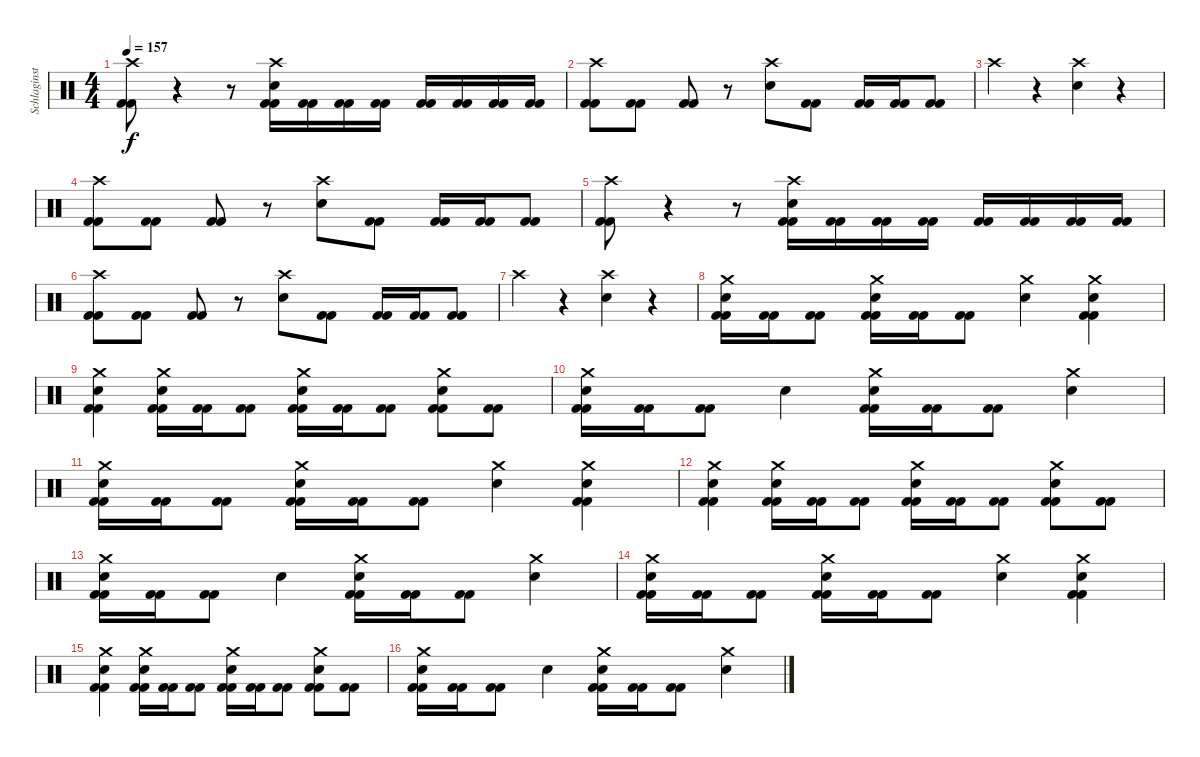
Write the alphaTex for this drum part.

\track ("Schlaginstrumente - Auswahl" "Schlaginst") {instrument percussion}
\staff {score}
\articulation defaults
\ts (4 4)
\tempo 157
\clef neutral
\ks c
("Crash high (hit)" "Kick (hit) 2" "Kick (hit) 2").8{dy f} r.4 r.8 ("Crash high (hit)" "Electric Snare (hit)" "Kick (hit) 2" "Kick (hit) 2").16 ("Kick (hit) 2" "Kick (hit) 2").16 ("Kick (hit) 2" "Kick (hit) 2").16 ("Kick (hit) 2" "Kick (hit) 2").16 ("Kick (hit) 2" "Kick (hit) 2").16 ("Kick (hit) 2" "Kick (hit) 2").16 ("Kick (hit) 2" "Kick (hit) 2").16 ("Kick (hit) 2" "Kick (hit) 2").16 |
("Crash high (hit)" "Kick (hit) 2" "Kick (hit) 2").8 ("Kick (hit) 2" "Kick (hit) 2").8 ("Kick (hit) 2" "Kick (hit) 2").8 r.8 ("Crash high (hit)" "Electric Snare (hit)").8 ("Kick (hit) 2" "Kick (hit) 2").8 ("Kick (hit) 2" "Kick (hit) 2").16 ("Kick (hit) 2" "Kick (hit) 2").16 ("Kick (hit) 2" "Kick (hit) 2").8 |
"Crash high (hit)".4 r.4 ("Crash high (hit)" "Electric Snare (hit)").4 r.4 |
("Crash high (hit)" "Kick (hit) 2" "Kick (hit) 2").8 ("Kick (hit) 2" "Kick (hit) 2").8 ("Kick (hit) 2" "Kick (hit) 2").8 r.8 ("Crash high (hit)" "Electric Snare (hit)").8 ("Kick (hit) 2" "Kick (hit) 2").8 ("Kick (hit) 2" "Kick (hit) 2").16 ("Kick (hit) 2" "Kick (hit) 2").16 ("Kick (hit) 2" "Kick (hit) 2").8 |
("Crash high (hit)" "Kick (hit) 2" "Kick (hit) 2").8 r.4 r.8 ("Crash high (hit)" "Electric Snare (hit)" "Kick (hit) 2" "Kick (hit) 2").16 ("Kick (hit) 2" "Kick (hit) 2").16 ("Kick (hit) 2" "Kick (hit) 2").16 ("Kick (hit) 2" "Kick (hit) 2").16 ("Kick (hit) 2" "Kick (hit) 2").16 ("Kick (hit) 2" "Kick (hit) 2").16 ("Kick (hit) 2" "Kick (hit) 2").16 ("Kick (hit) 2" "Kick (hit) 2").16 |
("Crash high (hit)" "Kick (hit) 2" "Kick (hit) 2").8 ("Kick (hit) 2" "Kick (hit) 2").8 ("Kick (hit) 2" "Kick (hit) 2").8 r.8 ("Crash high (hit)" "Electric Snare (hit)").8 ("Kick (hit) 2" "Kick (hit) 2").8 ("Kick (hit) 2" "Kick (hit) 2").16 ("Kick (hit) 2" "Kick (hit) 2").16 ("Kick (hit) 2" "Kick (hit) 2").8 |
"Crash high (hit)".4 r.4 ("Crash high (hit)" "Electric Snare (hit)").4 r.4 |
("Crash medium (hit)" "Electric Snare (hit)" "Kick (hit) 2" "Kick (hit) 2").16 ("Kick (hit) 2" "Kick (hit) 2").16 ("Kick (hit) 2" "Kick (hit) 2").8 ("Crash medium (hit)" "Electric Snare (hit)" "Kick (hit) 2" "Kick (hit) 2").16 ("Kick (hit) 2" "Kick (hit) 2").16 ("Kick (hit) 2" "Kick (hit) 2").8 ("Crash medium (hit)" "Electric Snare (hit)").4 ("Crash medium (hit)" "Electric Snare (hit)" "Kick (hit) 2" "Kick (hit) 2").4 |
("Crash medium (hit)" "Electric Snare (hit)" "Kick (hit) 2" "Kick (hit) 2").4 ("Crash medium (hit)" "Electric Snare (hit)" "Kick (hit) 2" "Kick (hit) 2").16 ("Kick (hit) 2" "Kick (hit) 2").16 ("Kick (hit) 2" "Kick (hit) 2").8 ("Crash medium (hit)" "Electric Snare (hit)" "Kick (hit) 2" "Kick (hit) 2").16 ("Kick (hit) 2" "Kick (hit) 2").16 ("Kick (hit) 2" "Kick (hit) 2").8 ("Crash medium (hit)" "Electric Snare (hit)" "Kick (hit) 2" "Kick (hit) 2").8 ("Kick (hit) 2" "Kick (hit) 2").8 |
("Crash medium (hit)" "Electric Snare (hit)" "Kick (hit) 2" "Kick (hit) 2").16 ("Kick (hit) 2" "Kick (hit) 2").16 ("Kick (hit) 2" "Kick (hit) 2").8 "Electric Snare (hit)".4 ("Crash medium (hit)" "Electric Snare (hit)" "Kick (hit) 2" "Kick (hit) 2").16 ("Kick (hit) 2" "Kick (hit) 2").16 ("Kick (hit) 2" "Kick (hit) 2").8 ("Crash medium (hit)" "Electric Snare (hit)").4 |
("Crash medium (hit)" "Electric Snare (hit)" "Kick (hit) 2" "Kick (hit) 2").16 ("Kick (hit) 2" "Kick (hit) 2").16 ("Kick (hit) 2" "Kick (hit) 2").8 ("Crash medium (hit)" "Electric Snare (hit)" "Kick (hit) 2" "Kick (hit) 2").16 ("Kick (hit) 2" "Kick (hit) 2").16 ("Kick (hit) 2" "Kick (hit) 2").8 ("Crash medium (hit)" "Electric Snare (hit)").4 ("Crash medium (hit)" "Electric Snare (hit)" "Kick (hit) 2" "Kick (hit) 2").4 |
("Crash medium (hit)" "Electric Snare (hit)" "Kick (hit) 2" "Kick (hit) 2").4 ("Crash medium (hit)" "Electric Snare (hit)" "Kick (hit) 2" "Kick (hit) 2").16 ("Kick (hit) 2" "Kick (hit) 2").16 ("Kick (hit) 2" "Kick (hit) 2").8 ("Crash medium (hit)" "Electric Snare (hit)" "Kick (hit) 2" "Kick (hit) 2").16 ("Kick (hit) 2" "Kick (hit) 2").16 ("Kick (hit) 2" "Kick (hit) 2").8 ("Crash medium (hit)" "Electric Snare (hit)" "Kick (hit) 2" "Kick (hit) 2").8 ("Kick (hit) 2" "Kick (hit) 2").8 |
("Crash medium (hit)" "Electric Snare (hit)" "Kick (hit) 2" "Kick (hit) 2").16 ("Kick (hit) 2" "Kick (hit) 2").16 ("Kick (hit) 2" "Kick (hit) 2").8 "Electric Snare (hit)".4 ("Crash medium (hit)" "Electric Snare (hit)" "Kick (hit) 2" "Kick (hit) 2").16 ("Kick (hit) 2" "Kick (hit) 2").16 ("Kick (hit) 2" "Kick (hit) 2").8 ("Crash medium (hit)" "Electric Snare (hit)").4 |
("Crash medium (hit)" "Electric Snare (hit)" "Kick (hit) 2" "Kick (hit) 2").16 ("Kick (hit) 2" "Kick (hit) 2").16 ("Kick (hit) 2" "Kick (hit) 2").8 ("Crash medium (hit)" "Electric Snare (hit)" "Kick (hit) 2" "Kick (hit) 2").16 ("Kick (hit) 2" "Kick (hit) 2").16 ("Kick (hit) 2" "Kick (hit) 2").8 ("Crash medium (hit)" "Electric Snare (hit)").4 ("Crash medium (hit)" "Electric Snare (hit)" "Kick (hit) 2" "Kick (hit) 2").4 |
("Crash medium (hit)" "Electric Snare (hit)" "Kick (hit) 2" "Kick (hit) 2").4 ("Crash medium (hit)" "Electric Snare (hit)" "Kick (hit) 2" "Kick (hit) 2").16 ("Kick (hit) 2" "Kick (hit) 2").16 ("Kick (hit) 2" "Kick (hit) 2").8 ("Crash medium (hit)" "Electric Snare (hit)" "Kick (hit) 2" "Kick (hit) 2").16 ("Kick (hit) 2" "Kick (hit) 2").16 ("Kick (hit) 2" "Kick (hit) 2").8 ("Crash medium (hit)" "Electric Snare (hit)" "Kick (hit) 2" "Kick (hit) 2").8 ("Kick (hit) 2" "Kick (hit) 2").8 |
("Crash medium (hit)" "Electric Snare (hit)" "Kick (hit) 2" "Kick (hit) 2").16 ("Kick (hit) 2" "Kick (hit) 2").16 ("Kick (hit) 2" "Kick (hit) 2").8 "Electric Snare (hit)".4 ("Crash medium (hit)" "Electric Snare (hit)" "Kick (hit) 2" "Kick (hit) 2").16 ("Kick (hit) 2" "Kick (hit) 2").16 ("Kick (hit) 2" "Kick (hit) 2").8 ("Crash medium (hit)" "Electric Snare (hit)").4
